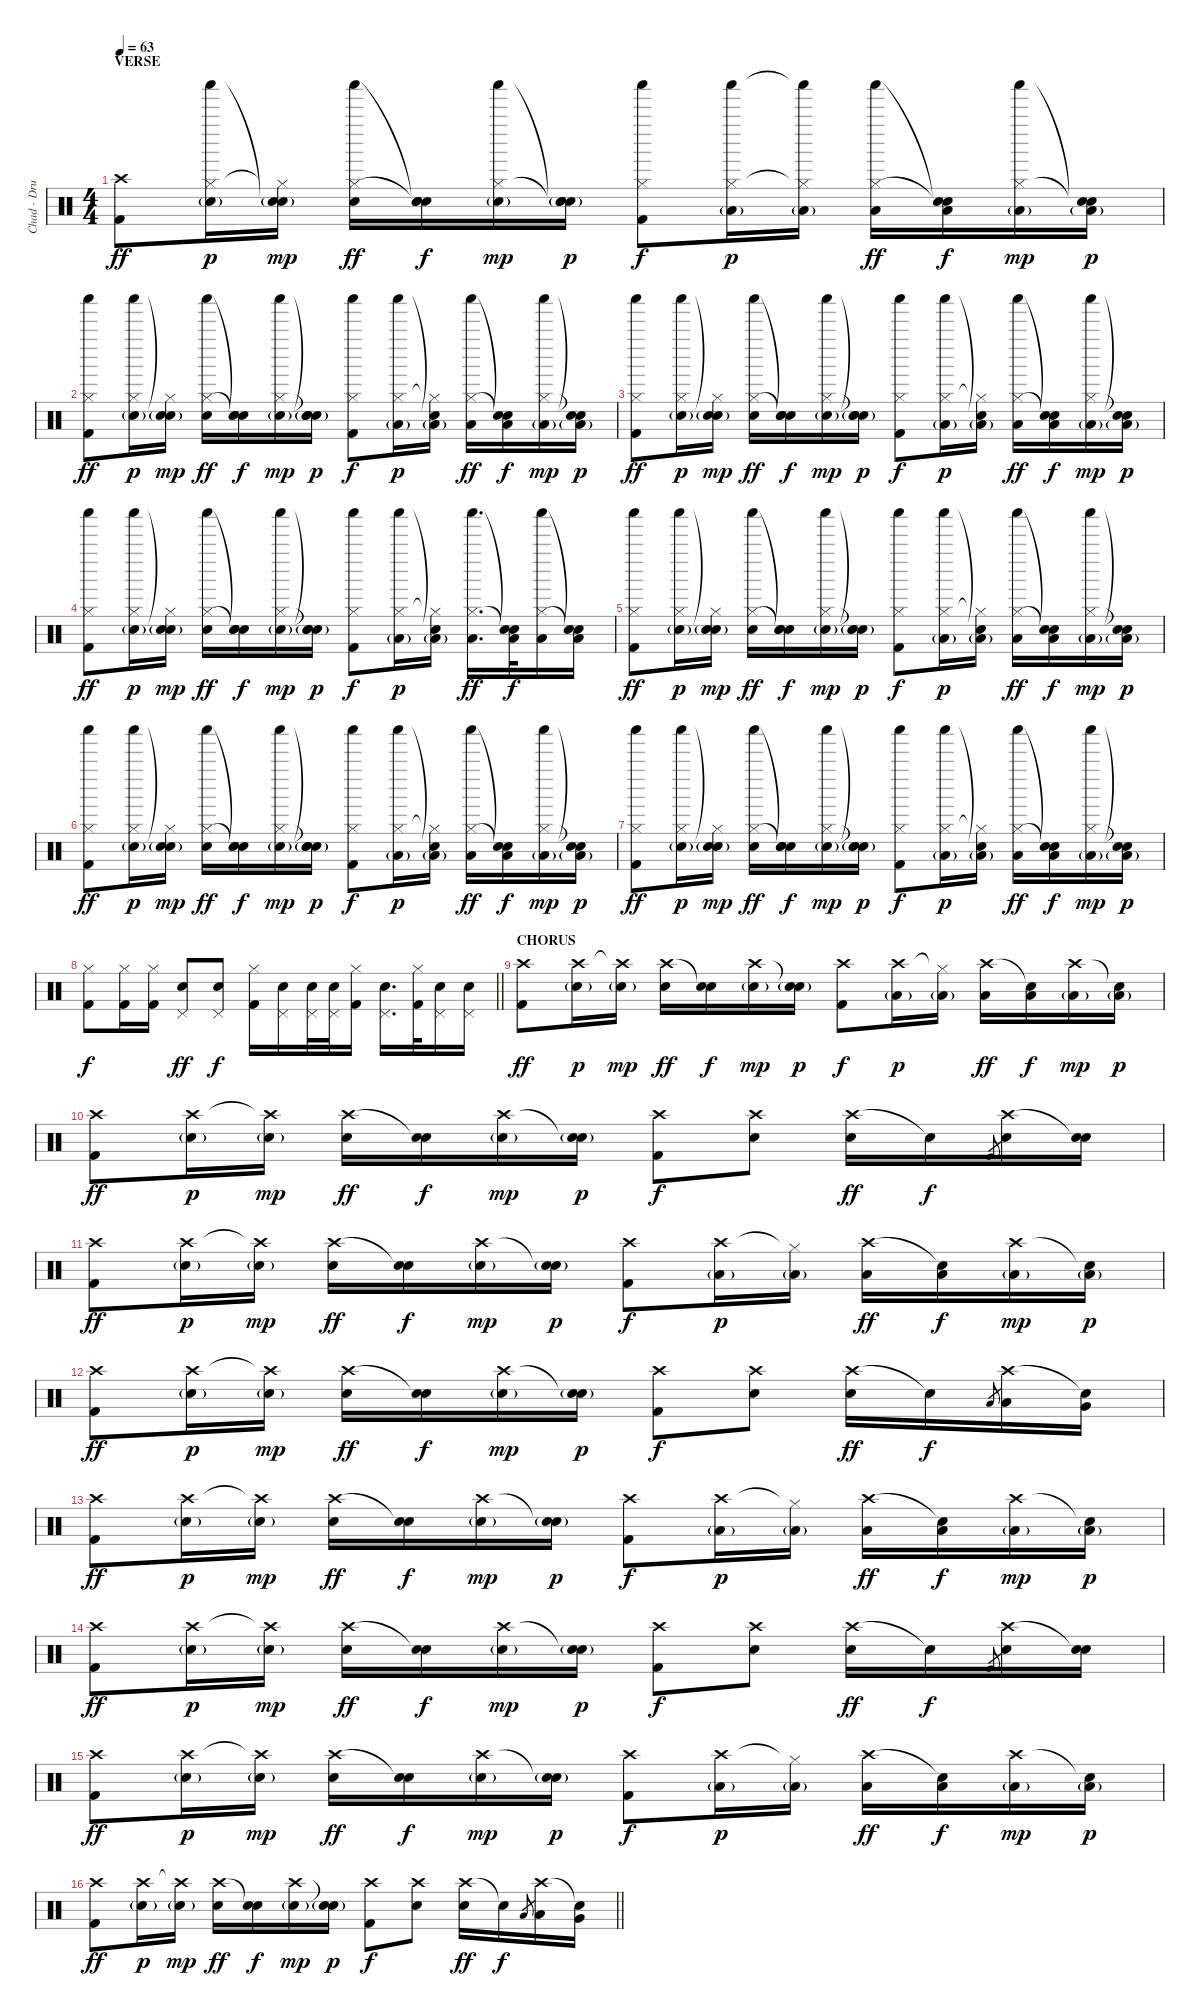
\track ("Chad - Drums" "Chad - Dru") {instrument percussion}
\staff {score}
\articulation defaults
\ts (4 4)
\section ("" "VERSE")
\tempo 63
\clef neutral
\ks c
("Crash high (hit)" "Kick (hit) 2").8{dy ff} ("Hi-Hat (closed)" "Shaker (hit)" "Snare (hit) 2"{g}).16{dy p} ("Hi-Hat (closed)"{t} "Snare (hit)"{t} "Snare (hit) 2"{g}).16{dy mp} ("Hi-Hat (closed)" "Shaker (hit)" "Snare (hit) 2").16{dy ff} ("Snare (hit)"{t} "Snare (hit)"{t} "Snare (hit) 2").16{dy f} ("Hi-Hat (closed)" "Shaker (hit)" "Snare (hit) 2"{g}).16{dy mp} ("Snare (hit)"{t} "Snare (hit)"{t} "Snare (hit) 2"{g}).16{dy p} ("Hi-Hat (closed)" "Shaker (hit)" "Kick (hit) 2").8{dy f} ("Hi-Hat (closed)" "Shaker (hit)" "Low Floor Tom (hit)"{g}).16{dy p} ("Hi-Hat (closed)"{t} "Shaker (hit)"{t} "Low Floor Tom (hit)"{g}).16 ("Hi-Hat (closed)" "Shaker (hit)" "Low Floor Tom (hit)").16{dy ff} ("Snare (hit)"{t} "Snare (hit)"{t} "Low Floor Tom (hit)").16{dy f} ("Hi-Hat (closed)" "Shaker (hit)" "Low Floor Tom (hit)"{g}).16{dy mp} ("Snare (hit)"{t} "Snare (hit)"{t} "Low Floor Tom (hit)"{g}).16{dy p} |
("Hi-Hat (closed)" "Shaker (hit)" "Kick (hit) 2").8{dy ff} ("Hi-Hat (closed)" "Shaker (hit)" "Snare (hit) 2"{g}).16{dy p} ("Hi-Hat (closed)"{t} "Snare (hit)"{t} "Snare (hit) 2"{g}).16{dy mp} ("Hi-Hat (closed)" "Shaker (hit)" "Snare (hit) 2").16{dy ff} ("Snare (hit)"{t} "Snare (hit)"{t} "Snare (hit) 2").16{dy f} ("Hi-Hat (closed)" "Shaker (hit)" "Snare (hit) 2"{g}).16{dy mp} ("Snare (hit)"{t} "Snare (hit)"{t} "Snare (hit) 2"{g}).16{dy p} ("Hi-Hat (closed)" "Shaker (hit)" "Kick (hit) 2").8{dy f} ("Hi-Hat (closed)" "Shaker (hit)" "Low Floor Tom (hit)"{g}).16{dy p} ("Hi-Hat (closed)"{t} "Snare (hit)"{t} "Low Floor Tom (hit)"{g}).16 ("Hi-Hat (closed)" "Shaker (hit)" "Low Floor Tom (hit)").16{dy ff} ("Snare (hit)"{t} "Snare (hit)"{t} "Low Floor Tom (hit)").16{dy f} ("Hi-Hat (closed)" "Shaker (hit)" "Low Floor Tom (hit)"{g}).16{dy mp} ("Snare (hit)"{t} "Snare (hit)"{t} "Low Floor Tom (hit)"{g}).16{dy p} |
("Hi-Hat (closed)" "Shaker (hit)" "Kick (hit) 2").8{dy ff} ("Hi-Hat (closed)" "Shaker (hit)" "Snare (hit) 2"{g}).16{dy p} ("Hi-Hat (closed)"{t} "Snare (hit)"{t} "Snare (hit) 2"{g}).16{dy mp} ("Hi-Hat (closed)" "Shaker (hit)" "Snare (hit) 2").16{dy ff} ("Snare (hit)"{t} "Snare (hit)"{t} "Snare (hit) 2").16{dy f} ("Hi-Hat (closed)" "Shaker (hit)" "Snare (hit) 2"{g}).16{dy mp} ("Snare (hit)"{t} "Snare (hit)"{t} "Snare (hit) 2"{g}).16{dy p} ("Hi-Hat (closed)" "Shaker (hit)" "Kick (hit) 2").8{dy f} ("Hi-Hat (closed)" "Shaker (hit)" "Low Floor Tom (hit)"{g}).16{dy p} ("Hi-Hat (closed)"{t} "Snare (hit)"{t} "Low Floor Tom (hit)"{g}).16 ("Hi-Hat (closed)" "Shaker (hit)" "Low Floor Tom (hit)").16{dy ff} ("Snare (hit)"{t} "Snare (hit)"{t} "Low Floor Tom (hit)").16{dy f} ("Hi-Hat (closed)" "Shaker (hit)" "Low Floor Tom (hit)"{g}).16{dy mp} ("Snare (hit)"{t} "Snare (hit)"{t} "Low Floor Tom (hit)"{g}).16{dy p} |
("Hi-Hat (closed)" "Shaker (hit)" "Kick (hit) 2").8{dy ff} ("Hi-Hat (closed)" "Shaker (hit)" "Snare (hit) 2"{g}).16{dy p} ("Hi-Hat (closed)"{t} "Snare (hit)"{t} "Snare (hit) 2"{g}).16{dy mp} ("Hi-Hat (closed)" "Shaker (hit)" "Snare (hit) 2").16{dy ff} ("Snare (hit)"{t} "Snare (hit)"{t} "Snare (hit) 2").16{dy f} ("Hi-Hat (closed)" "Shaker (hit)" "Snare (hit) 2"{g}).16{dy mp} ("Snare (hit)"{t} "Snare (hit)"{t} "Snare (hit) 2"{g}).16{dy p} ("Hi-Hat (closed)" "Shaker (hit)" "Kick (hit) 2").8{dy f} ("Hi-Hat (closed)" "Shaker (hit)" "Low Floor Tom (hit)"{g}).16{dy p} ("Hi-Hat (closed)"{t} "Snare (hit)"{t} "Low Floor Tom (hit)"{g}).16 ("Hi-Hat (closed)" "Shaker (hit)" "Low Floor Tom (hit)").16{d dy ff} ("Snare (hit)"{t} "Snare (hit)"{t} "Low Floor Tom (hit)").32{dy f} ("Hi-Hat (closed)" "Shaker (hit)" "Low Floor Tom (hit)").16 ("Snare (hit)"{t} "Snare (hit)"{t} "Low Floor Tom (hit)").16 |
("Hi-Hat (closed)" "Shaker (hit)" "Kick (hit) 2").8{dy ff} ("Hi-Hat (closed)" "Shaker (hit)" "Snare (hit) 2"{g}).16{dy p} ("Hi-Hat (closed)"{t} "Snare (hit)"{t} "Snare (hit) 2"{g}).16{dy mp} ("Hi-Hat (closed)" "Shaker (hit)" "Snare (hit) 2").16{dy ff} ("Snare (hit)"{t} "Snare (hit)"{t} "Snare (hit) 2").16{dy f} ("Hi-Hat (closed)" "Shaker (hit)" "Snare (hit) 2"{g}).16{dy mp} ("Snare (hit)"{t} "Snare (hit)"{t} "Snare (hit) 2"{g}).16{dy p} ("Hi-Hat (closed)" "Shaker (hit)" "Kick (hit) 2").8{dy f} ("Hi-Hat (closed)" "Shaker (hit)" "Low Floor Tom (hit)"{g}).16{dy p} ("Hi-Hat (closed)"{t} "Snare (hit)"{t} "Low Floor Tom (hit)"{g}).16 ("Hi-Hat (closed)" "Shaker (hit)" "Low Floor Tom (hit)").16{dy ff} ("Snare (hit)"{t} "Snare (hit)"{t} "Low Floor Tom (hit)").16{dy f} ("Hi-Hat (closed)" "Shaker (hit)" "Low Floor Tom (hit)"{g}).16{dy mp} ("Snare (hit)"{t} "Snare (hit)"{t} "Low Floor Tom (hit)"{g}).16{dy p} |
("Hi-Hat (closed)" "Shaker (hit)" "Kick (hit) 2").8{dy ff} ("Hi-Hat (closed)" "Shaker (hit)" "Snare (hit) 2"{g}).16{dy p} ("Hi-Hat (closed)"{t} "Snare (hit)"{t} "Snare (hit) 2"{g}).16{dy mp} ("Hi-Hat (closed)" "Shaker (hit)" "Snare (hit) 2").16{dy ff} ("Snare (hit)"{t} "Snare (hit)"{t} "Snare (hit) 2").16{dy f} ("Hi-Hat (closed)" "Shaker (hit)" "Snare (hit) 2"{g}).16{dy mp} ("Snare (hit)"{t} "Snare (hit)"{t} "Snare (hit) 2"{g}).16{dy p} ("Hi-Hat (closed)" "Shaker (hit)" "Kick (hit) 2").8{dy f} ("Hi-Hat (closed)" "Shaker (hit)" "Low Floor Tom (hit)"{g}).16{dy p} ("Hi-Hat (closed)"{t} "Snare (hit)"{t} "Low Floor Tom (hit)"{g}).16 ("Hi-Hat (closed)" "Shaker (hit)" "Low Floor Tom (hit)").16{dy ff} ("Snare (hit)"{t} "Snare (hit)"{t} "Low Floor Tom (hit)").16{dy f} ("Hi-Hat (closed)" "Shaker (hit)" "Low Floor Tom (hit)"{g}).16{dy mp} ("Snare (hit)"{t} "Snare (hit)"{t} "Low Floor Tom (hit)"{g}).16{dy p} |
("Hi-Hat (closed)" "Shaker (hit)" "Kick (hit) 2").8{dy ff} ("Hi-Hat (closed)" "Shaker (hit)" "Snare (hit) 2"{g}).16{dy p} ("Hi-Hat (closed)"{t} "Snare (hit)"{t} "Snare (hit) 2"{g}).16{dy mp} ("Hi-Hat (closed)" "Shaker (hit)" "Snare (hit) 2").16{dy ff} ("Snare (hit)"{t} "Snare (hit)"{t} "Snare (hit) 2").16{dy f} ("Hi-Hat (closed)" "Shaker (hit)" "Snare (hit) 2"{g}).16{dy mp} ("Snare (hit)"{t} "Snare (hit)"{t} "Snare (hit) 2"{g}).16{dy p} ("Hi-Hat (closed)" "Shaker (hit)" "Kick (hit) 2").8{dy f} ("Hi-Hat (closed)" "Shaker (hit)" "Low Floor Tom (hit)"{g}).16{dy p} ("Hi-Hat (closed)"{t} "Snare (hit)"{t} "Low Floor Tom (hit)"{g}).16 ("Hi-Hat (closed)" "Shaker (hit)" "Low Floor Tom (hit)").16{dy ff} ("Snare (hit)"{t} "Snare (hit)"{t} "Low Floor Tom (hit)").16{dy f} ("Hi-Hat (closed)" "Shaker (hit)" "Low Floor Tom (hit)"{g}).16{dy mp} ("Snare (hit)"{t} "Snare (hit)"{t} "Low Floor Tom (hit)"{g}).16{dy p} |
\barLineRight lightlight
("Hi-Hat (closed)" "Kick (hit) 2").8{dy f} ("Hi-Hat (closed)" "Kick (hit) 2").16 ("Hi-Hat (closed)" "Kick (hit) 2").16 ("Pedal Hi-Hat (hit)" "Snare (hit) 2").8{dy ff} ("Pedal Hi-Hat (hit)" "Snare (hit) 2").8{dy f} ("Hi-Hat (closed)" "Kick (hit) 2").16 ("Pedal Hi-Hat (hit)" "Snare (hit) 2").16 ("Pedal Hi-Hat (hit)" "Snare (hit) 2").32 ("Pedal Hi-Hat (hit)" "Snare (hit) 2").32 ("Hi-Hat (closed)" "Kick (hit) 2").16 ("Pedal Hi-Hat (hit)" "Snare (hit) 2").16{d} ("Hi-Hat (closed)" "Kick (hit) 2").32 ("Pedal Hi-Hat (hit)" "Snare (hit) 2").16 ("Pedal Hi-Hat (hit)" "Snare (hit) 2").16 |
\section ("" "CHORUS")
("Crash high (hit)" "Kick (hit) 2").8{dy ff volume 16} ("Crash high (hit)" "Snare (hit) 2"{g}).16{dy p} ("Crash high (hit)"{t} "Snare (hit) 2"{g}).16{dy mp} ("Crash high (hit)" "Snare (hit) 2").16{dy ff} ("Snare (hit)"{t} "Snare (hit) 2").16{dy f} ("Crash high (hit)" "Snare (hit) 2"{g}).16{dy mp} ("Snare (hit)"{t} "Snare (hit) 2"{g}).16{dy p} ("Crash high (hit)" "Kick (hit) 2").8{dy f} ("Crash high (hit)" "Low Floor Tom (hit)"{g}).16{dy p} ("Hi-Hat (closed)"{t} "Low Floor Tom (hit)"{g}).16 ("Crash high (hit)" "Low Floor Tom (hit)").16{dy ff} ("Snare (hit)"{t} "Low Floor Tom (hit)").16{dy f} ("Crash high (hit)" "Low Floor Tom (hit)"{g}).16{dy mp} ("Snare (hit)"{t} "Low Floor Tom (hit)"{g}).16{dy p} |
("Crash high (hit)" "Kick (hit) 2").8{dy ff} ("Crash high (hit)" "Snare (hit) 2"{g}).16{dy p} ("Crash high (hit)"{t} "Snare (hit) 2"{g}).16{dy mp} ("Crash high (hit)" "Snare (hit) 2").16{dy ff} ("Snare (hit)"{t} "Snare (hit) 2").16{dy f} ("Crash high (hit)" "Snare (hit) 2"{g}).16{dy mp} ("Snare (hit)"{t} "Snare (hit) 2"{g}).16{dy p} ("Crash high (hit)" "Kick (hit) 2").8{dy f} ("Crash high (hit)" "Snare (hit) 2").8 ("Crash high (hit)" "Snare (hit) 2").16{dy ff} "Snare (hit)"{t}.16{dy f} "Kick (hit) 2".8{gr} ("Crash high (hit)" "Snare (hit) 2").16 ("Snare (hit)"{t} "Snare (hit) 2").16 |
("Crash high (hit)" "Kick (hit) 2").8{dy ff} ("Crash high (hit)" "Snare (hit) 2"{g}).16{dy p} ("Crash high (hit)"{t} "Snare (hit) 2"{g}).16{dy mp} ("Crash high (hit)" "Snare (hit) 2").16{dy ff} ("Snare (hit)"{t} "Snare (hit) 2").16{dy f} ("Crash high (hit)" "Snare (hit) 2"{g}).16{dy mp} ("Snare (hit)"{t} "Snare (hit) 2"{g}).16{dy p} ("Crash high (hit)" "Kick (hit) 2").8{dy f} ("Crash high (hit)" "Low Floor Tom (hit)"{g}).16{dy p} ("Hi-Hat (closed)"{t} "Low Floor Tom (hit)"{g}).16 ("Crash high (hit)" "Low Floor Tom (hit)").16{dy ff} ("Snare (hit)"{t} "Low Floor Tom (hit)").16{dy f} ("Crash high (hit)" "Low Floor Tom (hit)"{g}).16{dy mp} ("Snare (hit)"{t} "Low Floor Tom (hit)"{g}).16{dy p} |
("Crash high (hit)" "Kick (hit) 2").8{dy ff} ("Crash high (hit)" "Snare (hit) 2"{g}).16{dy p} ("Crash high (hit)"{t} "Snare (hit) 2"{g}).16{dy mp} ("Crash high (hit)" "Snare (hit) 2").16{dy ff} ("Snare (hit)"{t} "Snare (hit) 2").16{dy f} ("Crash high (hit)" "Snare (hit) 2"{g}).16{dy mp} ("Snare (hit)"{t} "Snare (hit) 2"{g}).16{dy p} ("Crash high (hit)" "Kick (hit) 2").8{dy f} ("Crash high (hit)" "Snare (hit) 2").8 ("Crash high (hit)" "Snare (hit) 2").16{dy ff} "Snare (hit)"{t}.16{dy f} "Low Floor Tom (hit)".8{gr} ("Crash high (hit)" "Low Floor Tom (hit)").16 ("Snare (hit)"{t} "Very Low Tom (hit)").16 |
("Crash high (hit)" "Kick (hit) 2").8{dy ff} ("Crash high (hit)" "Snare (hit) 2"{g}).16{dy p} ("Crash high (hit)"{t} "Snare (hit) 2"{g}).16{dy mp} ("Crash high (hit)" "Snare (hit) 2").16{dy ff} ("Snare (hit)"{t} "Snare (hit) 2").16{dy f} ("Crash high (hit)" "Snare (hit) 2"{g}).16{dy mp} ("Snare (hit)"{t} "Snare (hit) 2"{g}).16{dy p} ("Crash high (hit)" "Kick (hit) 2").8{dy f} ("Crash high (hit)" "Low Floor Tom (hit)"{g}).16{dy p} ("Hi-Hat (closed)"{t} "Low Floor Tom (hit)"{g}).16 ("Crash high (hit)" "Low Floor Tom (hit)").16{dy ff} ("Snare (hit)"{t} "Low Floor Tom (hit)").16{dy f} ("Crash high (hit)" "Low Floor Tom (hit)"{g}).16{dy mp} ("Snare (hit)"{t} "Low Floor Tom (hit)"{g}).16{dy p} |
("Crash high (hit)" "Kick (hit) 2").8{dy ff} ("Crash high (hit)" "Snare (hit) 2"{g}).16{dy p} ("Crash high (hit)"{t} "Snare (hit) 2"{g}).16{dy mp} ("Crash high (hit)" "Snare (hit) 2").16{dy ff} ("Snare (hit)"{t} "Snare (hit) 2").16{dy f} ("Crash high (hit)" "Snare (hit) 2"{g}).16{dy mp} ("Snare (hit)"{t} "Snare (hit) 2"{g}).16{dy p} ("Crash high (hit)" "Kick (hit) 2").8{dy f} ("Crash high (hit)" "Snare (hit) 2").8 ("Crash high (hit)" "Snare (hit) 2").16{dy ff} "Snare (hit)"{t}.16{dy f} "Kick (hit) 2".8{gr} ("Crash high (hit)" "Snare (hit) 2").16 ("Snare (hit)"{t} "Snare (hit) 2").16 |
("Crash high (hit)" "Kick (hit) 2").8{dy ff} ("Crash high (hit)" "Snare (hit) 2"{g}).16{dy p} ("Crash high (hit)"{t} "Snare (hit) 2"{g}).16{dy mp} ("Crash high (hit)" "Snare (hit) 2").16{dy ff} ("Snare (hit)"{t} "Snare (hit) 2").16{dy f} ("Crash high (hit)" "Snare (hit) 2"{g}).16{dy mp} ("Snare (hit)"{t} "Snare (hit) 2"{g}).16{dy p} ("Crash high (hit)" "Kick (hit) 2").8{dy f} ("Crash high (hit)" "Low Floor Tom (hit)"{g}).16{dy p} ("Hi-Hat (closed)"{t} "Low Floor Tom (hit)"{g}).16 ("Crash high (hit)" "Low Floor Tom (hit)").16{dy ff} ("Snare (hit)"{t} "Low Floor Tom (hit)").16{dy f} ("Crash high (hit)" "Low Floor Tom (hit)"{g}).16{dy mp} ("Snare (hit)"{t} "Low Floor Tom (hit)"{g}).16{dy p} |
\barLineRight lightlight
("Crash high (hit)" "Kick (hit) 2").8{dy ff} ("Crash high (hit)" "Snare (hit) 2"{g}).16{dy p} ("Crash high (hit)"{t} "Snare (hit) 2"{g}).16{dy mp} ("Crash high (hit)" "Snare (hit) 2").16{dy ff} ("Snare (hit)"{t} "Snare (hit) 2").16{dy f} ("Crash high (hit)" "Snare (hit) 2"{g}).16{dy mp} ("Snare (hit)"{t} "Snare (hit) 2"{g}).16{dy p} ("Crash high (hit)" "Kick (hit) 2").8{dy f} ("Crash high (hit)" "Snare (hit) 2").8 ("Crash high (hit)" "Snare (hit) 2").16{dy ff} "Snare (hit)"{t}.16{dy f} "Low Floor Tom (hit)".8{gr} ("Crash high (hit)" "Low Floor Tom (hit)").16 ("Snare (hit)"{t} "Very Low Tom (hit)").16
